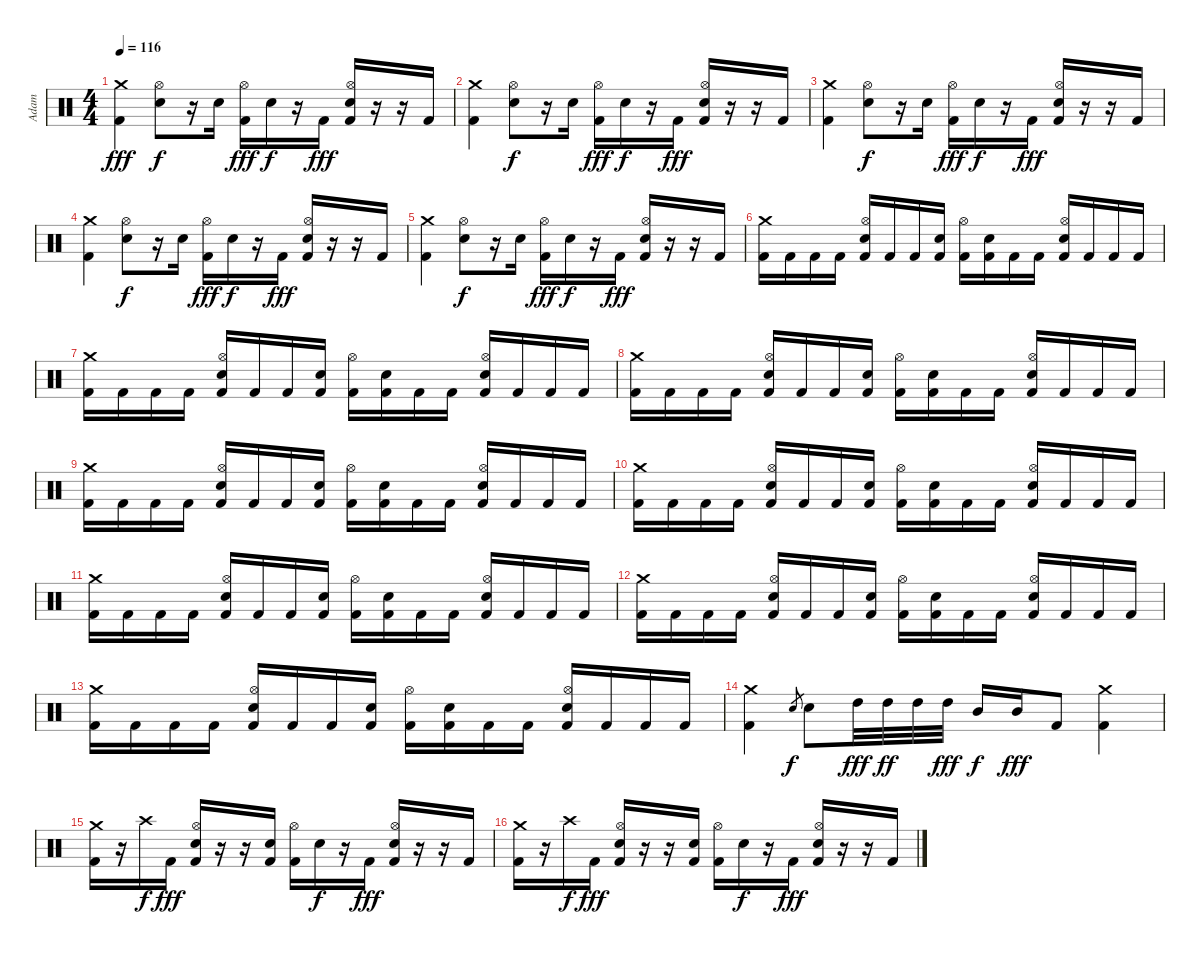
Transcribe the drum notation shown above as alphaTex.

\track ("Adam" "Adam") {instrument percussion}
\staff {score}
\articulation defaults
\ts (4 4)
\tempo 116
\clef neutral
\ks c
("Crash medium (hit)" "Kick (hit) 2").4{dy fff} ("Hi-Hat (open)" "Electric Snare (hit)").8{dy f} r.16 "Electric Snare (hit)".16 ("Hi-Hat (open)" "Kick (hit) 2").16{dy fff} "Electric Snare (hit)".16{dy f} r.16 "Kick (hit) 2".16{dy fff} ("Hi-Hat (open)" "Electric Snare (hit)" "Kick (hit) 2").16 r.16 r.16 "Kick (hit) 2".16 |
("Crash medium (hit)" "Kick (hit) 2").4 ("Hi-Hat (open)" "Electric Snare (hit)").8{dy f} r.16 "Electric Snare (hit)".16 ("Hi-Hat (open)" "Kick (hit) 2").16{dy fff} "Electric Snare (hit)".16{dy f} r.16 "Kick (hit) 2".16{dy fff} ("Hi-Hat (open)" "Electric Snare (hit)" "Kick (hit) 2").16 r.16 r.16 "Kick (hit) 2".16 |
("Crash medium (hit)" "Kick (hit) 2").4 ("Hi-Hat (open)" "Electric Snare (hit)").8{dy f} r.16 "Electric Snare (hit)".16 ("Hi-Hat (open)" "Kick (hit) 2").16{dy fff} "Electric Snare (hit)".16{dy f} r.16 "Kick (hit) 2".16{dy fff} ("Hi-Hat (open)" "Electric Snare (hit)" "Kick (hit) 2").16 r.16 r.16 "Kick (hit) 2".16 |
("Crash medium (hit)" "Kick (hit) 2").4 ("Hi-Hat (open)" "Electric Snare (hit)").8{dy f} r.16 "Electric Snare (hit)".16 ("Hi-Hat (open)" "Kick (hit) 2").16{dy fff} "Electric Snare (hit)".16{dy f} r.16 "Kick (hit) 2".16{dy fff} ("Hi-Hat (open)" "Electric Snare (hit)" "Kick (hit) 2").16 r.16 r.16 "Kick (hit) 2".16 |
("Crash medium (hit)" "Kick (hit) 2").4 ("Hi-Hat (open)" "Electric Snare (hit)").8{dy f} r.16 "Electric Snare (hit)".16 ("Hi-Hat (open)" "Kick (hit) 2").16{dy fff} "Electric Snare (hit)".16{dy f} r.16 "Kick (hit) 2".16{dy fff} ("Hi-Hat (open)" "Electric Snare (hit)" "Kick (hit) 2").16 r.16 r.16 "Kick (hit) 2".16 |
("Crash medium (hit)" "Kick (hit) 2").16 "Kick (hit) 2".16 "Kick (hit) 2".16 "Kick (hit) 2".16 ("Hi-Hat (open)" "Electric Snare (hit)" "Kick (hit) 2").16 "Kick (hit) 2".16 "Kick (hit) 2".16 ("Electric Snare (hit)" "Kick (hit) 2").16 ("Hi-Hat (open)" "Kick (hit) 2").16 ("Electric Snare (hit)" "Kick (hit) 2").16 "Kick (hit) 2".16 "Kick (hit) 2".16 ("Hi-Hat (open)" "Electric Snare (hit)" "Kick (hit) 2").16 "Kick (hit) 2".16 "Kick (hit) 2".16 "Kick (hit) 2".16 |
("Crash medium (hit)" "Kick (hit) 2").16 "Kick (hit) 2".16 "Kick (hit) 2".16 "Kick (hit) 2".16 ("Hi-Hat (open)" "Electric Snare (hit)" "Kick (hit) 2").16 "Kick (hit) 2".16 "Kick (hit) 2".16 ("Electric Snare (hit)" "Kick (hit) 2").16 ("Hi-Hat (open)" "Kick (hit) 2").16 ("Electric Snare (hit)" "Kick (hit) 2").16 "Kick (hit) 2".16 "Kick (hit) 2".16 ("Hi-Hat (open)" "Electric Snare (hit)" "Kick (hit) 2").16 "Kick (hit) 2".16 "Kick (hit) 2".16 "Kick (hit) 2".16 |
("Crash medium (hit)" "Kick (hit) 2").16 "Kick (hit) 2".16 "Kick (hit) 2".16 "Kick (hit) 2".16 ("Hi-Hat (open)" "Electric Snare (hit)" "Kick (hit) 2").16 "Kick (hit) 2".16 "Kick (hit) 2".16 ("Electric Snare (hit)" "Kick (hit) 2").16 ("Hi-Hat (open)" "Kick (hit) 2").16 ("Electric Snare (hit)" "Kick (hit) 2").16 "Kick (hit) 2".16 "Kick (hit) 2".16 ("Hi-Hat (open)" "Electric Snare (hit)" "Kick (hit) 2").16 "Kick (hit) 2".16 "Kick (hit) 2".16 "Kick (hit) 2".16 |
("Crash medium (hit)" "Kick (hit) 2").16 "Kick (hit) 2".16 "Kick (hit) 2".16 "Kick (hit) 2".16 ("Hi-Hat (open)" "Electric Snare (hit)" "Kick (hit) 2").16 "Kick (hit) 2".16 "Kick (hit) 2".16 ("Electric Snare (hit)" "Kick (hit) 2").16 ("Hi-Hat (open)" "Kick (hit) 2").16 ("Electric Snare (hit)" "Kick (hit) 2").16 "Kick (hit) 2".16 "Kick (hit) 2".16 ("Hi-Hat (open)" "Electric Snare (hit)" "Kick (hit) 2").16 "Kick (hit) 2".16 "Kick (hit) 2".16 "Kick (hit) 2".16 |
("Crash medium (hit)" "Kick (hit) 2").16 "Kick (hit) 2".16 "Kick (hit) 2".16 "Kick (hit) 2".16 ("Hi-Hat (open)" "Electric Snare (hit)" "Kick (hit) 2").16 "Kick (hit) 2".16 "Kick (hit) 2".16 ("Electric Snare (hit)" "Kick (hit) 2").16 ("Hi-Hat (open)" "Kick (hit) 2").16 ("Electric Snare (hit)" "Kick (hit) 2").16 "Kick (hit) 2".16 "Kick (hit) 2".16 ("Hi-Hat (open)" "Electric Snare (hit)" "Kick (hit) 2").16 "Kick (hit) 2".16 "Kick (hit) 2".16 "Kick (hit) 2".16 |
("Crash medium (hit)" "Kick (hit) 2").16 "Kick (hit) 2".16 "Kick (hit) 2".16 "Kick (hit) 2".16 ("Hi-Hat (open)" "Electric Snare (hit)" "Kick (hit) 2").16 "Kick (hit) 2".16 "Kick (hit) 2".16 ("Electric Snare (hit)" "Kick (hit) 2").16 ("Hi-Hat (open)" "Kick (hit) 2").16 ("Electric Snare (hit)" "Kick (hit) 2").16 "Kick (hit) 2".16 "Kick (hit) 2".16 ("Hi-Hat (open)" "Electric Snare (hit)" "Kick (hit) 2").16 "Kick (hit) 2".16 "Kick (hit) 2".16 "Kick (hit) 2".16 |
("Crash medium (hit)" "Kick (hit) 2").16 "Kick (hit) 2".16 "Kick (hit) 2".16 "Kick (hit) 2".16 ("Hi-Hat (open)" "Electric Snare (hit)" "Kick (hit) 2").16 "Kick (hit) 2".16 "Kick (hit) 2".16 ("Electric Snare (hit)" "Kick (hit) 2").16 ("Hi-Hat (open)" "Kick (hit) 2").16 ("Electric Snare (hit)" "Kick (hit) 2").16 "Kick (hit) 2".16 "Kick (hit) 2".16 ("Hi-Hat (open)" "Electric Snare (hit)" "Kick (hit) 2").16 "Kick (hit) 2".16 "Kick (hit) 2".16 "Kick (hit) 2".16 |
("Crash medium (hit)" "Kick (hit) 2").16 "Kick (hit) 2".16 "Kick (hit) 2".16 "Kick (hit) 2".16 ("Hi-Hat (open)" "Electric Snare (hit)" "Kick (hit) 2").16 "Kick (hit) 2".16 "Kick (hit) 2".16 ("Electric Snare (hit)" "Kick (hit) 2").16 ("Hi-Hat (open)" "Kick (hit) 2").16 ("Electric Snare (hit)" "Kick (hit) 2").16 "Kick (hit) 2".16 "Kick (hit) 2".16 ("Hi-Hat (open)" "Electric Snare (hit)" "Kick (hit) 2").16 "Kick (hit) 2".16 "Kick (hit) 2".16 "Kick (hit) 2".16 |
("Crash medium (hit)" "Kick (hit) 2").4 "Electric Snare (hit)".8{gr dy f} "Electric Snare (hit)".8 "High Tom (hit)".32{dy fff} "High Tom (hit)".32{dy ff} "High Tom (hit)".32 "High Tom (hit)".32{dy fff} "Mid Tom (hit)".16{dy f} "Mid Tom (hit)".16{dy fff} "Kick (hit) 2".8 ("Crash medium (hit)" "Kick (hit) 2").4 |
("Crash medium (hit)" "Kick (hit) 2").16 r.16 "Crash high (hit)".16{dy f} "Kick (hit) 2".16{dy fff} ("Hi-Hat (open)" "Electric Snare (hit)" "Kick (hit) 2").16 r.16 r.16 ("Electric Snare (hit)" "Kick (hit) 2").16 ("Hi-Hat (open)" "Kick (hit) 2").16 "Electric Snare (hit)".16{dy f} r.16 "Kick (hit) 2".16{dy fff} ("Hi-Hat (open)" "Electric Snare (hit)" "Kick (hit) 2").16 r.16 r.16 "Kick (hit) 2".16 |
("Crash medium (hit)" "Kick (hit) 2").16 r.16 "Crash high (hit)".16{dy f} "Kick (hit) 2".16{dy fff} ("Hi-Hat (open)" "Electric Snare (hit)" "Kick (hit) 2").16 r.16 r.16 ("Electric Snare (hit)" "Kick (hit) 2").16 ("Hi-Hat (open)" "Kick (hit) 2").16 "Electric Snare (hit)".16{dy f} r.16 "Kick (hit) 2".16{dy fff} ("Hi-Hat (open)" "Electric Snare (hit)" "Kick (hit) 2").16 r.16 r.16 "Kick (hit) 2".16
